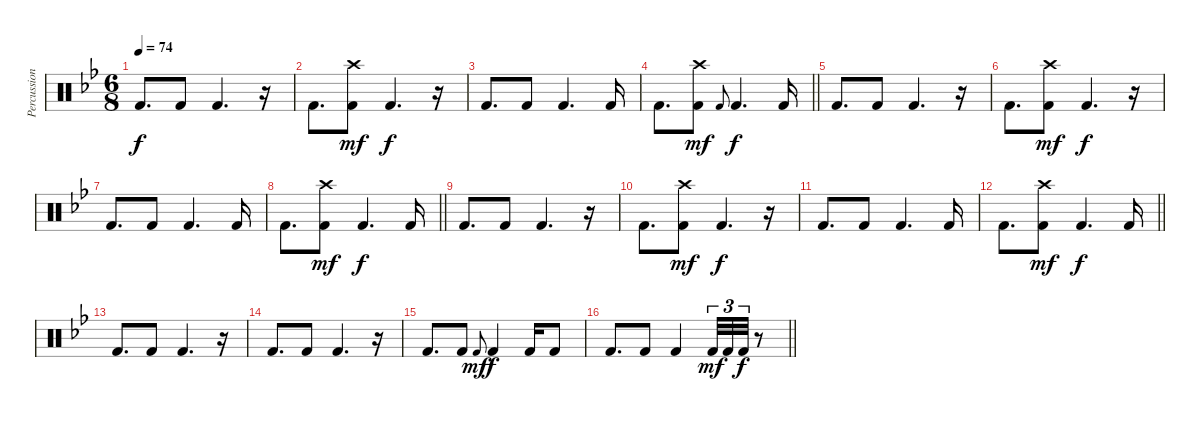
\track ("Percussion" "Percussion") {instrument percussion}
\staff {score}
\articulation defaults
\ts (6 8)
\tempo 74
\clef neutral
\ks bb "Kick (hit) 2".8{d dy f} "Kick (hit) 2".8 "Kick (hit) 2".4{d}
r.16 |
"Kick (hit) 2".8{d} ("Crash high (hit)" "Kick (hit) 2").8{dy mf} "Kick (hit) 2".4{d dy f} r.16 |
"Kick (hit) 2".8{d} "Kick (hit) 2".8 "Kick (hit) 2".4{d} "Kick (hit) 2".16 |
\barLineRight lightlight "Kick (hit) 2".8{d}
("Crash high (hit)" "Kick (hit) 2").8{dy mf} "Kick (hit) 2".8{gr onbeat} "Kick (hit) 2".4{d dy f} "Kick (hit) 2".16 |
"Kick (hit) 2".8{d} "Kick (hit) 2".8 "Kick (hit) 2".4{d} r.16 |
"Kick (hit) 2".8{d} ("Crash high (hit)" "Kick (hit) 2").8{dy mf} "Kick (hit) 2".4{d dy f} r.16 |
"Kick (hit) 2".8{d} "Kick (hit) 2".8 "Kick (hit) 2".4{d} "Kick (hit) 2".16 |
\barLineRight lightlight "Kick (hit) 2".8{d}
("Crash high (hit)" "Kick (hit) 2").8{dy mf} "Kick (hit) 2".4{d dy f} "Kick (hit) 2".16 |
"Kick (hit) 2".8{d} "Kick (hit) 2".8 "Kick (hit) 2".4{d} r.16 |
"Kick (hit) 2".8{d} ("Crash high (hit)" "Kick (hit) 2").8{dy mf} "Kick (hit) 2".4{d dy f} r.16 |
"Kick (hit) 2".8{d} "Kick (hit) 2".8 "Kick (hit) 2".4{d} "Kick (hit) 2".16 |
\barLineRight lightlight "Kick (hit) 2".8{d}
("Crash high (hit)" "Kick (hit) 2").8{dy mf} "Kick (hit) 2".4{d dy f} "Kick (hit) 2".16 |
"Kick (hit) 2".8{d} "Kick (hit) 2".8 "Kick (hit) 2".4{d} r.16 |
"Kick (hit) 2".8{d} "Kick (hit) 2".8 "Kick (hit) 2".4{d} r.16 |
"Kick (hit) 2".8{d} "Kick (hit) 2".8 "Kick (hit) 2".8{gr onbeat dy mf} "Kick (hit) 2".4{dy f} "Kick (hit) 2".16 "Kick (hit) 2".8 |
\barLineRight lightlight "Kick (hit) 2".8{d} "Kick (hit) 2".8 "Kick (hit) 2".4 "Kick (hit) 2".32{tu (3 2) dy mf} "Kick (hit) 2".32{tu (3 2)} "Kick (hit) 2".32{tu (3 2) dy f}
r.8
